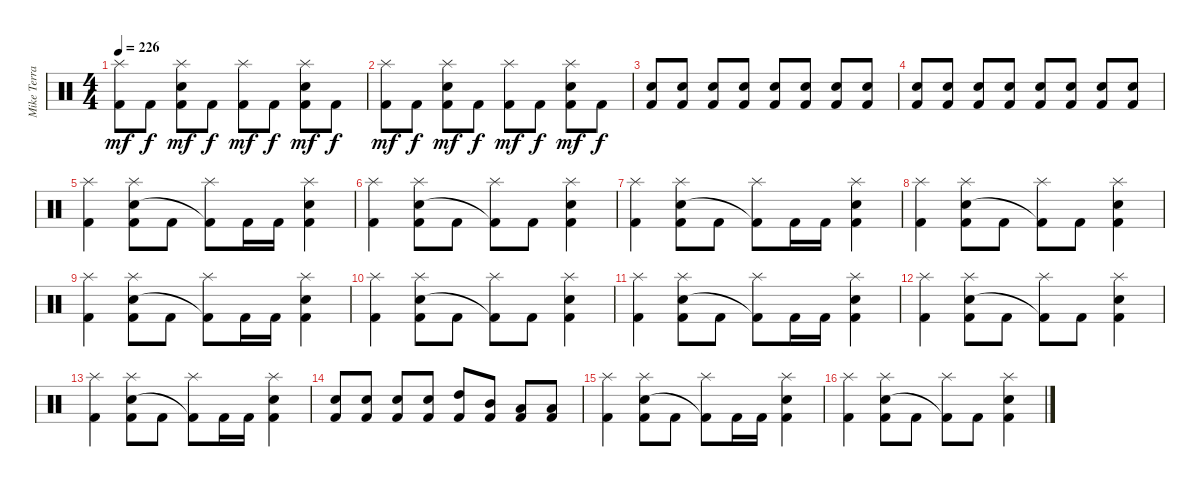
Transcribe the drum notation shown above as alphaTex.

\track ("Mike Terrana" "Mike Terra") {instrument percussion}
\staff {score}
\articulation defaults
\ts (4 4)
\tempo 226
\clef neutral
\ks c
("Splash (hit)" "Kick (hit) 2").8{dy mf} "Kick (hit) 2".8{dy f} ("Splash (hit)" "Snare (hit) 2" "Kick (hit) 2").8{dy mf} "Kick (hit) 2".8{dy f} ("Splash (hit)" "Kick (hit) 2").8{dy mf} "Kick (hit) 2".8{dy f} ("Splash (hit)" "Snare (hit) 2" "Kick (hit) 2").8{dy mf} "Kick (hit) 2".8{dy f} |
("Splash (hit)" "Kick (hit) 2").8{dy mf} "Kick (hit) 2".8{dy f} ("Splash (hit)" "Snare (hit) 2" "Kick (hit) 2").8{dy mf} "Kick (hit) 2".8{dy f} ("Splash (hit)" "Kick (hit) 2").8{dy mf} "Kick (hit) 2".8{dy f} ("Splash (hit)" "Snare (hit) 2" "Kick (hit) 2").8{dy mf} "Kick (hit) 2".8{dy f} |
("Snare (hit) 2" "Kick (hit) 2").8 ("Snare (hit) 2" "Kick (hit) 2").8 ("Snare (hit) 2" "Kick (hit) 2").8 ("Snare (hit) 2" "Kick (hit) 2").8 ("Snare (hit) 2" "Kick (hit) 2").8 ("Snare (hit) 2" "Kick (hit) 2").8 ("Snare (hit) 2" "Kick (hit) 2").8 ("Snare (hit) 2" "Kick (hit) 2").8 |
("Snare (hit) 2" "Kick (hit) 2").8 ("Snare (hit) 2" "Kick (hit) 2").8 ("Snare (hit) 2" "Kick (hit) 2").8 ("Snare (hit) 2" "Kick (hit) 2").8 ("Snare (hit) 2" "Kick (hit) 2").8 ("Snare (hit) 2" "Kick (hit) 2").8 ("Snare (hit) 2" "Kick (hit) 2").8 ("Snare (hit) 2" "Kick (hit) 2").8 |
("Splash (hit)" "Kick (hit) 2").4 ("Splash (hit)" "Snare (hit) 2" "Kick (hit) 2").8 "Kick (hit) 2".8 ("Splash (hit)" "Kick (hit) 2"{t}).8 "Kick (hit) 2".16 "Kick (hit) 2".16 ("Splash (hit)" "Snare (hit) 2" "Kick (hit) 2").4 |
("Splash (hit)" "Kick (hit) 2").4 ("Splash (hit)" "Snare (hit) 2" "Kick (hit) 2").8 "Kick (hit) 2".8 ("Splash (hit)" "Kick (hit) 2"{t}).8 "Kick (hit) 2".8 ("Splash (hit)" "Snare (hit) 2" "Kick (hit) 2").4 |
("Splash (hit)" "Kick (hit) 2").4 ("Splash (hit)" "Snare (hit) 2" "Kick (hit) 2").8 "Kick (hit) 2".8 ("Splash (hit)" "Kick (hit) 2"{t}).8 "Kick (hit) 2".16 "Kick (hit) 2".16 ("Splash (hit)" "Snare (hit) 2" "Kick (hit) 2").4 |
("Splash (hit)" "Kick (hit) 2").4 ("Splash (hit)" "Snare (hit) 2" "Kick (hit) 2").8 "Kick (hit) 2".8 ("Splash (hit)" "Kick (hit) 2"{t}).8 "Kick (hit) 2".8 ("Splash (hit)" "Snare (hit) 2" "Kick (hit) 2").4 |
("Splash (hit)" "Kick (hit) 2").4 ("Splash (hit)" "Snare (hit) 2" "Kick (hit) 2").8 "Kick (hit) 2".8 ("Splash (hit)" "Kick (hit) 2"{t}).8 "Kick (hit) 2".16 "Kick (hit) 2".16 ("Splash (hit)" "Snare (hit) 2" "Kick (hit) 2").4 |
("Splash (hit)" "Kick (hit) 2").4 ("Splash (hit)" "Snare (hit) 2" "Kick (hit) 2").8 "Kick (hit) 2".8 ("Splash (hit)" "Kick (hit) 2"{t}).8 "Kick (hit) 2".8 ("Splash (hit)" "Snare (hit) 2" "Kick (hit) 2").4 |
("Splash (hit)" "Kick (hit) 2").4 ("Splash (hit)" "Snare (hit) 2" "Kick (hit) 2").8 "Kick (hit) 2".8 ("Splash (hit)" "Kick (hit) 2"{t}).8 "Kick (hit) 2".16 "Kick (hit) 2".16 ("Splash (hit)" "Snare (hit) 2" "Kick (hit) 2").4 |
("Splash (hit)" "Kick (hit) 2").4 ("Splash (hit)" "Snare (hit) 2" "Kick (hit) 2").8 "Kick (hit) 2".8 ("Splash (hit)" "Kick (hit) 2"{t}).8 "Kick (hit) 2".8 ("Splash (hit)" "Snare (hit) 2" "Kick (hit) 2").4 |
("Splash (hit)" "Kick (hit) 2").4 ("Splash (hit)" "Snare (hit) 2" "Kick (hit) 2").8 "Kick (hit) 2".8 ("Splash (hit)" "Kick (hit) 2"{t}).8 "Kick (hit) 2".16 "Kick (hit) 2".16 ("Splash (hit)" "Snare (hit) 2" "Kick (hit) 2").4 |
("Snare (hit) 2" "Kick (hit) 2").8 ("Snare (hit) 2" "Kick (hit) 2").8 ("Snare (hit) 2" "Kick (hit) 2").8 ("Snare (hit) 2" "Kick (hit) 2").8 ("High Tom (hit)" "Kick (hit) 2").8 ("Mid Tom (hit)" "Kick (hit) 2").8 ("Low Tom (hit)" "Kick (hit) 2").8 ("Low Tom (hit)" "Kick (hit) 2").8 |
("Splash (hit)" "Kick (hit) 2").4 ("Splash (hit)" "Snare (hit) 2" "Kick (hit) 2").8 "Kick (hit) 2".8 ("Splash (hit)" "Kick (hit) 2"{t}).8 "Kick (hit) 2".16 "Kick (hit) 2".16 ("Splash (hit)" "Snare (hit) 2" "Kick (hit) 2").4 |
("Splash (hit)" "Kick (hit) 2").4 ("Splash (hit)" "Snare (hit) 2" "Kick (hit) 2").8 "Kick (hit) 2".8 ("Splash (hit)" "Kick (hit) 2"{t}).8 "Kick (hit) 2".8 ("Splash (hit)" "Snare (hit) 2" "Kick (hit) 2").4
